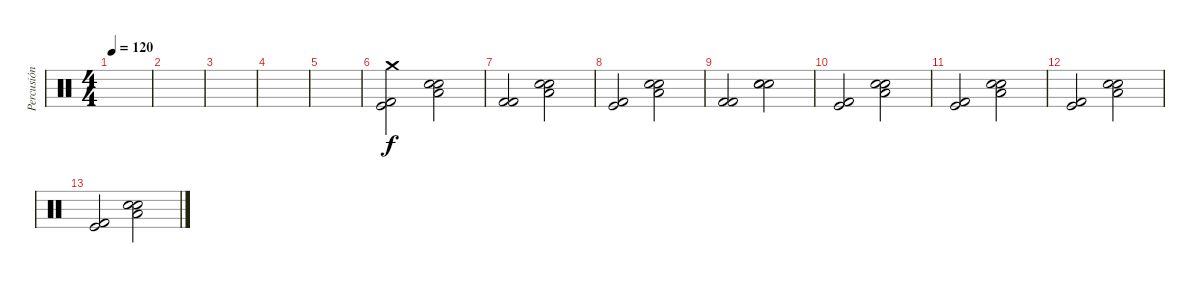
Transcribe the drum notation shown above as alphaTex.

\track ("Percusión" "Percusión") {instrument percussion}
\staff {score}
\articulation defaults
\ts (4 4)
\tempo 120
\clef neutral
\ks c
|
|
|
|
|
("Crash medium (hit)" "Kick (hit) 2" "Kick (hit)").2 ("Electric Snare (hit)" "Snare (hit) 2" "Low Floor Tom (hit)").2 |
("Kick (hit) 2" "Kick (hit) 2").2 ("Electric Snare (hit)" "Snare (hit) 2" "Low Floor Tom (hit)").2 |
("Kick (hit) 2" "Kick (hit)").2 ("Snare (hit) 2" "Electric Snare (hit)" "Low Floor Tom (hit)").2 |
("Kick (hit) 2" "Kick (hit) 2").2 ("Electric Snare (hit)" "Electric Snare (hit)" "Snare (hit) 2").2 |
("Kick (hit) 2" "Kick (hit)").2 ("Electric Snare (hit)" "Snare (hit) 2" "Low Floor Tom (hit)").2 |
("Kick (hit) 2" "Kick (hit)").2 ("Electric Snare (hit)" "Snare (hit) 2" "Low Floor Tom (hit)").2 |
("Kick (hit) 2" "Kick (hit)").2 ("Electric Snare (hit)" "Snare (hit) 2" "Low Floor Tom (hit)").2 |
("Kick (hit) 2" "Kick (hit)").2 ("Electric Snare (hit)" "Snare (hit) 2" "Low Floor Tom (hit)").2
